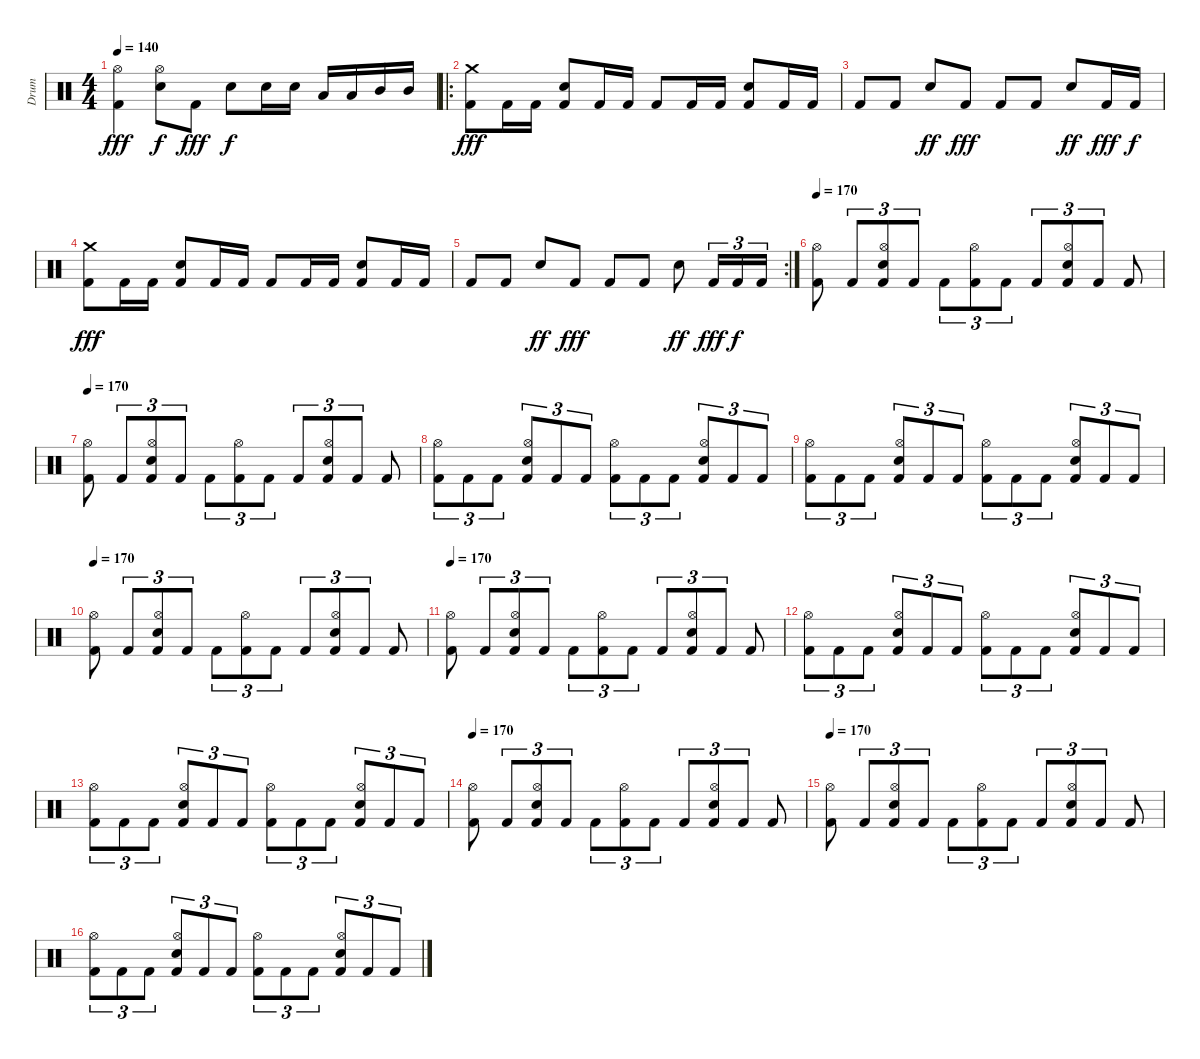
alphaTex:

\track ("Drum" "Drum") {instrument percussion}
\staff {score}
\articulation defaults
\ts (4 4)
\tempo 140
\clef neutral
\ks c
("Kick (hit) 2" "Hi-Hat (open)").4{dy fff} ("Electric Snare (hit)" "Hi-Hat (open)").8{dy f} "Kick (hit) 2".8{dy fff} "Electric Snare (hit)".8{dy f} "Electric Snare (hit)".16 "Electric Snare (hit)".16 "Low Tom (hit)".16 "Low Tom (hit)".16 "Mid Tom (hit)".16 "Mid Tom (hit)".16 |
\ro
("Kick (hit) 2" "Crash medium (hit)").8{dy fff} "Kick (hit) 2".16 "Kick (hit) 2".16 ("Kick (hit) 2" "Electric Snare (hit)").8 "Kick (hit) 2".16 "Kick (hit) 2".16 "Kick (hit) 2".8 "Kick (hit) 2".16 "Kick (hit) 2".16 ("Kick (hit) 2" "Electric Snare (hit)").8 "Kick (hit) 2".16 "Kick (hit) 2".16 |
"Kick (hit) 2".8 "Kick (hit) 2".8 "Electric Snare (hit)".8{dy ff} "Kick (hit) 2".8{dy fff} "Kick (hit) 2".8 "Kick (hit) 2".8 "Electric Snare (hit)".8{dy ff} "Kick (hit) 2".16{dy fff} "Kick (hit) 2".16{dy f} |
("Kick (hit) 2" "Crash medium (hit)").8{dy fff} "Kick (hit) 2".16 "Kick (hit) 2".16 ("Kick (hit) 2" "Electric Snare (hit)").8 "Kick (hit) 2".16 "Kick (hit) 2".16 "Kick (hit) 2".8 "Kick (hit) 2".16 "Kick (hit) 2".16 ("Kick (hit) 2" "Electric Snare (hit)").8 "Kick (hit) 2".16 "Kick (hit) 2".16 |
\rc 2 "Kick (hit) 2".8 "Kick (hit) 2".8 "Electric Snare (hit)".8{dy ff} "Kick (hit) 2".8{dy fff} "Kick (hit) 2".8 "Kick (hit) 2".8 "Electric Snare (hit)".8{dy ff} "Kick (hit) 2".16{tu (3 2) dy fff} "Kick (hit) 2".16{tu (3 2) dy f} "Kick (hit) 2".16{tu (3 2)}
|
\tempo 170
("Kick (hit) 2" "Hi-Hat (open)").8 "Kick (hit) 2".8{tu (3 2)} ("Kick (hit) 2" "Electric Snare (hit)" "Hi-Hat (open)").8{tu (3 2)} "Kick (hit) 2".8{tu (3 2)} "Kick (hit) 2".8{tu (3 2)} ("Kick (hit) 2" "Hi-Hat (open)").8{tu (3 2)} "Kick (hit) 2".8{tu (3 2)} "Kick (hit) 2".8{tu (3 2)} ("Kick (hit) 2" "Electric Snare (hit)" "Hi-Hat (open)").8{tu (3 2)} "Kick (hit) 2".8{tu (3 2)} "Kick (hit) 2".8 |
\tempo 170
("Kick (hit) 2" "Hi-Hat (open)").8 "Kick (hit) 2".8{tu (3 2)} ("Kick (hit) 2" "Electric Snare (hit)" "Hi-Hat (open)").8{tu (3 2)} "Kick (hit) 2".8{tu (3 2)} "Kick (hit) 2".8{tu (3 2)} ("Kick (hit) 2" "Hi-Hat (open)").8{tu (3 2)} "Kick (hit) 2".8{tu (3 2)} "Kick (hit) 2".8{tu (3 2)} ("Kick (hit) 2" "Electric Snare (hit)" "Hi-Hat (open)").8{tu (3 2)} "Kick (hit) 2".8{tu (3 2)} "Kick (hit) 2".8 |
("Kick (hit) 2" "Hi-Hat (open)").8{tu (3 2)} "Kick (hit) 2".8{tu (3 2)} "Kick (hit) 2".8{tu (3 2)} ("Kick (hit) 2" "Electric Snare (hit)" "Hi-Hat (open)").8{tu (3 2)} "Kick (hit) 2".8{tu (3 2)} "Kick (hit) 2".8{tu (3 2)} ("Kick (hit) 2" "Hi-Hat (open)").8{tu (3 2)} "Kick (hit) 2".8{tu (3 2)} "Kick (hit) 2".8{tu (3 2)} ("Kick (hit) 2" "Electric Snare (hit)" "Hi-Hat (open)").8{tu (3 2)} "Kick (hit) 2".8{tu (3 2)} "Kick (hit) 2".8{tu (3 2)} |
("Kick (hit) 2" "Hi-Hat (open)").8{tu (3 2)} "Kick (hit) 2".8{tu (3 2)} "Kick (hit) 2".8{tu (3 2)} ("Kick (hit) 2" "Electric Snare (hit)" "Hi-Hat (open)").8{tu (3 2)} "Kick (hit) 2".8{tu (3 2)} "Kick (hit) 2".8{tu (3 2)} ("Kick (hit) 2" "Hi-Hat (open)").8{tu (3 2)} "Kick (hit) 2".8{tu (3 2)} "Kick (hit) 2".8{tu (3 2)} ("Kick (hit) 2" "Electric Snare (hit)" "Hi-Hat (open)").8{tu (3 2)} "Kick (hit) 2".8{tu (3 2)} "Kick (hit) 2".8{tu (3 2)} |
\tempo 170
("Kick (hit) 2" "Hi-Hat (open)").8 "Kick (hit) 2".8{tu (3 2)} ("Kick (hit) 2" "Electric Snare (hit)" "Hi-Hat (open)").8{tu (3 2)} "Kick (hit) 2".8{tu (3 2)} "Kick (hit) 2".8{tu (3 2)} ("Kick (hit) 2" "Hi-Hat (open)").8{tu (3 2)} "Kick (hit) 2".8{tu (3 2)} "Kick (hit) 2".8{tu (3 2)} ("Kick (hit) 2" "Electric Snare (hit)" "Hi-Hat (open)").8{tu (3 2)} "Kick (hit) 2".8{tu (3 2)} "Kick (hit) 2".8 |
\tempo 170
("Kick (hit) 2" "Hi-Hat (open)").8 "Kick (hit) 2".8{tu (3 2)} ("Kick (hit) 2" "Electric Snare (hit)" "Hi-Hat (open)").8{tu (3 2)} "Kick (hit) 2".8{tu (3 2)} "Kick (hit) 2".8{tu (3 2)} ("Kick (hit) 2" "Hi-Hat (open)").8{tu (3 2)} "Kick (hit) 2".8{tu (3 2)} "Kick (hit) 2".8{tu (3 2)} ("Kick (hit) 2" "Electric Snare (hit)" "Hi-Hat (open)").8{tu (3 2)} "Kick (hit) 2".8{tu (3 2)} "Kick (hit) 2".8 |
("Kick (hit) 2" "Hi-Hat (open)").8{tu (3 2)} "Kick (hit) 2".8{tu (3 2)} "Kick (hit) 2".8{tu (3 2)} ("Kick (hit) 2" "Electric Snare (hit)" "Hi-Hat (open)").8{tu (3 2)} "Kick (hit) 2".8{tu (3 2)} "Kick (hit) 2".8{tu (3 2)} ("Kick (hit) 2" "Hi-Hat (open)").8{tu (3 2)} "Kick (hit) 2".8{tu (3 2)} "Kick (hit) 2".8{tu (3 2)} ("Kick (hit) 2" "Electric Snare (hit)" "Hi-Hat (open)").8{tu (3 2)} "Kick (hit) 2".8{tu (3 2)} "Kick (hit) 2".8{tu (3 2)} |
("Kick (hit) 2" "Hi-Hat (open)").8{tu (3 2)} "Kick (hit) 2".8{tu (3 2)} "Kick (hit) 2".8{tu (3 2)} ("Kick (hit) 2" "Electric Snare (hit)" "Hi-Hat (open)").8{tu (3 2)} "Kick (hit) 2".8{tu (3 2)} "Kick (hit) 2".8{tu (3 2)} ("Kick (hit) 2" "Hi-Hat (open)").8{tu (3 2)} "Kick (hit) 2".8{tu (3 2)} "Kick (hit) 2".8{tu (3 2)} ("Kick (hit) 2" "Electric Snare (hit)" "Hi-Hat (open)").8{tu (3 2)} "Kick (hit) 2".8{tu (3 2)} "Kick (hit) 2".8{tu (3 2)} |
\tempo 170
("Kick (hit) 2" "Hi-Hat (open)").8 "Kick (hit) 2".8{tu (3 2)} ("Kick (hit) 2" "Electric Snare (hit)" "Hi-Hat (open)").8{tu (3 2)} "Kick (hit) 2".8{tu (3 2)} "Kick (hit) 2".8{tu (3 2)} ("Kick (hit) 2" "Hi-Hat (open)").8{tu (3 2)} "Kick (hit) 2".8{tu (3 2)} "Kick (hit) 2".8{tu (3 2)} ("Kick (hit) 2" "Electric Snare (hit)" "Hi-Hat (open)").8{tu (3 2)} "Kick (hit) 2".8{tu (3 2)} "Kick (hit) 2".8 |
\tempo 170
("Kick (hit) 2" "Hi-Hat (open)").8 "Kick (hit) 2".8{tu (3 2)} ("Kick (hit) 2" "Electric Snare (hit)" "Hi-Hat (open)").8{tu (3 2)} "Kick (hit) 2".8{tu (3 2)} "Kick (hit) 2".8{tu (3 2)} ("Kick (hit) 2" "Hi-Hat (open)").8{tu (3 2)} "Kick (hit) 2".8{tu (3 2)} "Kick (hit) 2".8{tu (3 2)} ("Kick (hit) 2" "Electric Snare (hit)" "Hi-Hat (open)").8{tu (3 2)} "Kick (hit) 2".8{tu (3 2)} "Kick (hit) 2".8 |
("Kick (hit) 2" "Hi-Hat (open)").8{tu (3 2)} "Kick (hit) 2".8{tu (3 2)} "Kick (hit) 2".8{tu (3 2)} ("Kick (hit) 2" "Electric Snare (hit)" "Hi-Hat (open)").8{tu (3 2)} "Kick (hit) 2".8{tu (3 2)} "Kick (hit) 2".8{tu (3 2)} ("Kick (hit) 2" "Hi-Hat (open)").8{tu (3 2)} "Kick (hit) 2".8{tu (3 2)} "Kick (hit) 2".8{tu (3 2)} ("Kick (hit) 2" "Electric Snare (hit)" "Hi-Hat (open)").8{tu (3 2)} "Kick (hit) 2".8{tu (3 2)} "Kick (hit) 2".8{tu (3 2)}
